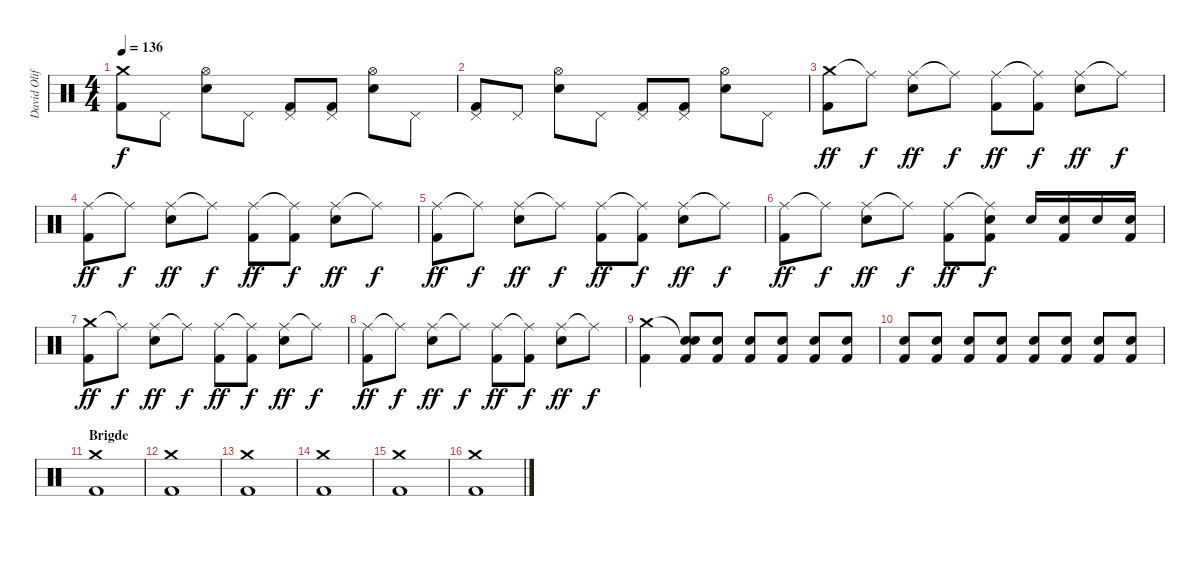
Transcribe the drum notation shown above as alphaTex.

\track ("David Oliffe" "David Olif") {instrument percussion}
\staff {score}
\articulation defaults
\ts (4 4)
\tempo 136
\clef neutral
\ks c
("Crash medium (hit)" "Kick (hit) 2").8{dy f} "Pedal Hi-Hat (hit)".8 ("Hi-Hat (open)" "Electric Snare (hit)").8 "Pedal Hi-Hat (hit)".8 ("Pedal Hi-Hat (hit)" "Kick (hit) 2").8 ("Pedal Hi-Hat (hit)" "Kick (hit) 2").8 ("Hi-Hat (open)" "Electric Snare (hit)").8 "Pedal Hi-Hat (hit)".8 |
("Pedal Hi-Hat (hit)" "Kick (hit) 2").8 "Pedal Hi-Hat (hit)".8 ("Hi-Hat (open)" "Electric Snare (hit)").8 "Pedal Hi-Hat (hit)".8 ("Pedal Hi-Hat (hit)" "Kick (hit) 2").8 ("Pedal Hi-Hat (hit)" "Kick (hit) 2").8 ("Hi-Hat (open)" "Electric Snare (hit)").8 "Pedal Hi-Hat (hit)".8 |
("Crash medium (hit)" "Kick (hit) 2").8{dy ff} "Ride (middle)"{t}.8{dy f} ("Ride (middle)" "Electric Snare (hit)").8{dy ff} "Ride (middle)"{t}.8{dy f} ("Ride (middle)" "Kick (hit) 2").8{dy ff} ("Ride (middle)"{t} "Kick (hit) 2").8{dy f} ("Ride (middle)" "Electric Snare (hit)").8{dy ff} "Ride (middle)"{t}.8{dy f} |
("Ride (middle)" "Kick (hit) 2").8{dy ff} "Ride (middle)"{t}.8{dy f} ("Ride (middle)" "Electric Snare (hit)").8{dy ff} "Ride (middle)"{t}.8{dy f} ("Ride (middle)" "Kick (hit) 2").8{dy ff} ("Ride (middle)"{t} "Kick (hit) 2").8{dy f} ("Ride (middle)" "Electric Snare (hit)").8{dy ff} "Ride (middle)"{t}.8{dy f} |
("Ride (middle)" "Kick (hit) 2").8{dy ff} "Ride (middle)"{t}.8{dy f} ("Ride (middle)" "Electric Snare (hit)").8{dy ff} "Ride (middle)"{t}.8{dy f} ("Ride (middle)" "Kick (hit) 2").8{dy ff} ("Ride (middle)"{t} "Kick (hit) 2").8{dy f} ("Ride (middle)" "Electric Snare (hit)").8{dy ff} "Ride (middle)"{t}.8{dy f} |
("Ride (middle)" "Kick (hit) 2").8{dy ff} "Ride (middle)"{t}.8{dy f} ("Ride (middle)" "Electric Snare (hit)").8{dy ff} "Ride (middle)"{t}.8{dy f} ("Ride (middle)" "Kick (hit) 2").8{dy ff} ("Ride (middle)"{t} "Electric Snare (hit)" "Kick (hit) 2").8{dy f} "Electric Snare (hit)".16 ("Electric Snare (hit)" "Kick (hit) 2").16 "Electric Snare (hit)".16 ("Electric Snare (hit)" "Kick (hit) 2").16 |
("Crash medium (hit)" "Kick (hit) 2").8{dy ff} "Ride (middle)"{t}.8{dy f} ("Ride (middle)" "Electric Snare (hit)").8{dy ff} "Ride (middle)"{t}.8{dy f} ("Ride (middle)" "Kick (hit) 2").8{dy ff} ("Ride (middle)"{t} "Kick (hit) 2").8{dy f} ("Ride (middle)" "Electric Snare (hit)").8{dy ff} "Ride (middle)"{t}.8{dy f} |
("Ride (middle)" "Kick (hit) 2").8{dy ff} "Ride (middle)"{t}.8{dy f} ("Ride (middle)" "Electric Snare (hit)").8{dy ff} "Ride (middle)"{t}.8{dy f} ("Ride (middle)" "Kick (hit) 2").8{dy ff} ("Ride (middle)"{t} "Kick (hit) 2").8{dy f} ("Ride (middle)" "Electric Snare (hit)").8{dy ff} "Ride (middle)"{t}.8{dy f} |
("Crash medium (hit)" "Kick (hit) 2").4 ("Snare (hit)"{t} "Electric Snare (hit)" "Kick (hit) 2").8{volume 12} ("Electric Snare (hit)" "Kick (hit) 2").8 ("Electric Snare (hit)" "Kick (hit) 2").8 ("Electric Snare (hit)" "Kick (hit) 2").8 ("Electric Snare (hit)" "Kick (hit) 2").8 ("Electric Snare (hit)" "Kick (hit) 2").8{volume 14} |
("Electric Snare (hit)" "Kick (hit) 2").8 ("Electric Snare (hit)" "Kick (hit) 2").8 ("Electric Snare (hit)" "Kick (hit) 2").8 ("Electric Snare (hit)" "Kick (hit) 2").8{volume 16} ("Electric Snare (hit)" "Kick (hit) 2").8 ("Electric Snare (hit)" "Kick (hit) 2").8 ("Electric Snare (hit)" "Kick (hit) 2").8 ("Electric Snare (hit)" "Kick (hit) 2").8 |
\section ("" "Brigde")
("Crash medium (hit)" "Kick (hit) 2").1 |
("Crash medium (hit)" "Kick (hit) 2").1 |
("Crash medium (hit)" "Kick (hit) 2").1 |
("Crash medium (hit)" "Kick (hit) 2").1 |
("Crash medium (hit)" "Kick (hit) 2").1 |
("Crash medium (hit)" "Kick (hit) 2").1
